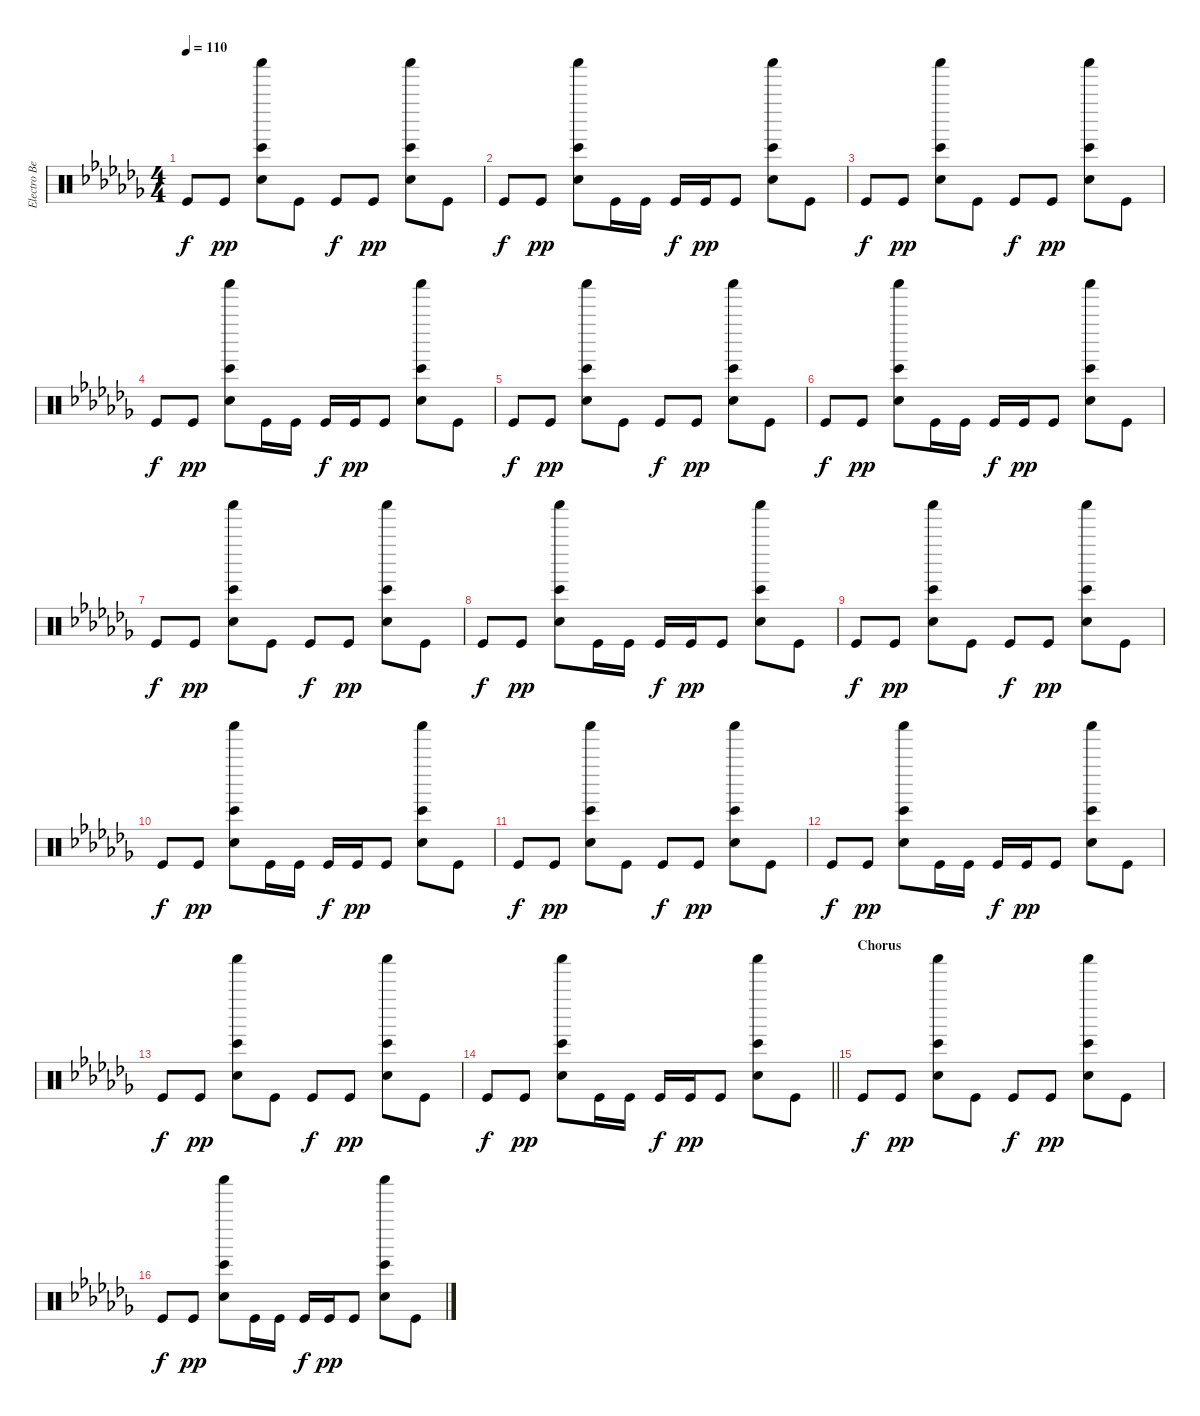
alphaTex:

\track ("Electro Beat - Joe Hahn" "Electro Be") {instrument percussion}
\staff {score}
\articulation defaults
\ts (4 4)
\tempo 110
\clef neutral
\ks abminor "Kick (hit)".8{dy f} "Kick (hit)".8{dy pp}
("Snare (hit) 2" "Bongo High (hit)" "Shaker (hit)").8 "Kick (hit)".8 "Kick (hit)".8{dy f} "Kick (hit)".8{dy pp} ("Snare (hit) 2" "Bongo High (hit)" "Shaker (hit)").8 "Kick (hit)".8 |
"Kick (hit)".8{dy f} "Kick (hit)".8{dy pp} ("Snare (hit) 2" "Bongo High (hit)" "Shaker (hit)").8 "Kick (hit)".16 "Kick (hit)".16 "Kick (hit)".16{dy f} "Kick (hit)".16{dy pp} "Kick (hit)".8 ("Snare (hit) 2" "Bongo High (hit)" "Shaker (hit)").8 "Kick (hit)".8 |
"Kick (hit)".8{dy f} "Kick (hit)".8{dy pp} ("Snare (hit) 2" "Bongo High (hit)" "Shaker (hit)").8 "Kick (hit)".8 "Kick (hit)".8{dy f} "Kick (hit)".8{dy pp} ("Snare (hit) 2" "Bongo High (hit)" "Shaker (hit)").8 "Kick (hit)".8 |
"Kick (hit)".8{dy f} "Kick (hit)".8{dy pp} ("Snare (hit) 2" "Bongo High (hit)" "Shaker (hit)").8 "Kick (hit)".16 "Kick (hit)".16 "Kick (hit)".16{dy f} "Kick (hit)".16{dy pp} "Kick (hit)".8 ("Snare (hit) 2" "Bongo High (hit)" "Shaker (hit)").8 "Kick (hit)".8 |
"Kick (hit)".8{dy f} "Kick (hit)".8{dy pp} ("Snare (hit) 2" "Bongo High (hit)" "Shaker (hit)").8 "Kick (hit)".8 "Kick (hit)".8{dy f} "Kick (hit)".8{dy pp} ("Snare (hit) 2" "Bongo High (hit)" "Shaker (hit)").8 "Kick (hit)".8 |
"Kick (hit)".8{dy f} "Kick (hit)".8{dy pp} ("Snare (hit) 2" "Bongo High (hit)" "Shaker (hit)").8 "Kick (hit)".16 "Kick (hit)".16 "Kick (hit)".16{dy f} "Kick (hit)".16{dy pp} "Kick (hit)".8 ("Snare (hit) 2" "Bongo High (hit)" "Shaker (hit)").8 "Kick (hit)".8 |
"Kick (hit)".8{dy f} "Kick (hit)".8{dy pp} ("Snare (hit) 2" "Bongo High (hit)" "Shaker (hit)").8 "Kick (hit)".8 "Kick (hit)".8{dy f} "Kick (hit)".8{dy pp} ("Snare (hit) 2" "Bongo High (hit)" "Shaker (hit)").8 "Kick (hit)".8 |
"Kick (hit)".8{dy f} "Kick (hit)".8{dy pp} ("Snare (hit) 2" "Bongo High (hit)" "Shaker (hit)").8 "Kick (hit)".16 "Kick (hit)".16 "Kick (hit)".16{dy f} "Kick (hit)".16{dy pp} "Kick (hit)".8 ("Snare (hit) 2" "Bongo High (hit)" "Shaker (hit)").8 "Kick (hit)".8 |
"Kick (hit)".8{dy f} "Kick (hit)".8{dy pp} ("Snare (hit) 2" "Bongo High (hit)" "Shaker (hit)").8 "Kick (hit)".8 "Kick (hit)".8{dy f} "Kick (hit)".8{dy pp} ("Snare (hit) 2" "Bongo High (hit)" "Shaker (hit)").8 "Kick (hit)".8 |
"Kick (hit)".8{dy f} "Kick (hit)".8{dy pp} ("Snare (hit) 2" "Bongo High (hit)" "Shaker (hit)").8 "Kick (hit)".16 "Kick (hit)".16 "Kick (hit)".16{dy f} "Kick (hit)".16{dy pp} "Kick (hit)".8 ("Snare (hit) 2" "Bongo High (hit)" "Shaker (hit)").8 "Kick (hit)".8 |
"Kick (hit)".8{dy f} "Kick (hit)".8{dy pp} ("Snare (hit) 2" "Bongo High (hit)" "Shaker (hit)").8 "Kick (hit)".8 "Kick (hit)".8{dy f} "Kick (hit)".8{dy pp} ("Snare (hit) 2" "Bongo High (hit)" "Shaker (hit)").8 "Kick (hit)".8 |
"Kick (hit)".8{dy f} "Kick (hit)".8{dy pp} ("Snare (hit) 2" "Bongo High (hit)" "Shaker (hit)").8 "Kick (hit)".16 "Kick (hit)".16 "Kick (hit)".16{dy f} "Kick (hit)".16{dy pp} "Kick (hit)".8 ("Snare (hit) 2" "Bongo High (hit)" "Shaker (hit)").8 "Kick (hit)".8 |
"Kick (hit)".8{dy f} "Kick (hit)".8{dy pp} ("Snare (hit) 2" "Bongo High (hit)" "Shaker (hit)").8 "Kick (hit)".8 "Kick (hit)".8{dy f} "Kick (hit)".8{dy pp} ("Snare (hit) 2" "Bongo High (hit)" "Shaker (hit)").8 "Kick (hit)".8 |
\barLineRight lightlight "Kick (hit)".8{dy f} "Kick (hit)".8{dy pp}
("Snare (hit) 2" "Bongo High (hit)" "Shaker (hit)").8 "Kick (hit)".16 "Kick (hit)".16 "Kick (hit)".16{dy f} "Kick (hit)".16{dy pp} "Kick (hit)".8 ("Snare (hit) 2" "Bongo High (hit)" "Shaker (hit)").8 "Kick (hit)".8 |
\section ("" "Chorus")
"Kick (hit)".8{dy f} "Kick (hit)".8{dy pp} ("Snare (hit) 2" "Bongo High (hit)" "Shaker (hit)").8 "Kick (hit)".8 "Kick (hit)".8{dy f} "Kick (hit)".8{dy pp} ("Snare (hit) 2" "Bongo High (hit)" "Shaker (hit)").8 "Kick (hit)".8 |
"Kick (hit)".8{dy f} "Kick (hit)".8{dy pp} ("Snare (hit) 2" "Bongo High (hit)" "Shaker (hit)").8 "Kick (hit)".16 "Kick (hit)".16 "Kick (hit)".16{dy f} "Kick (hit)".16{dy pp} "Kick (hit)".8 ("Snare (hit) 2" "Bongo High (hit)" "Shaker (hit)").8 "Kick (hit)".8
